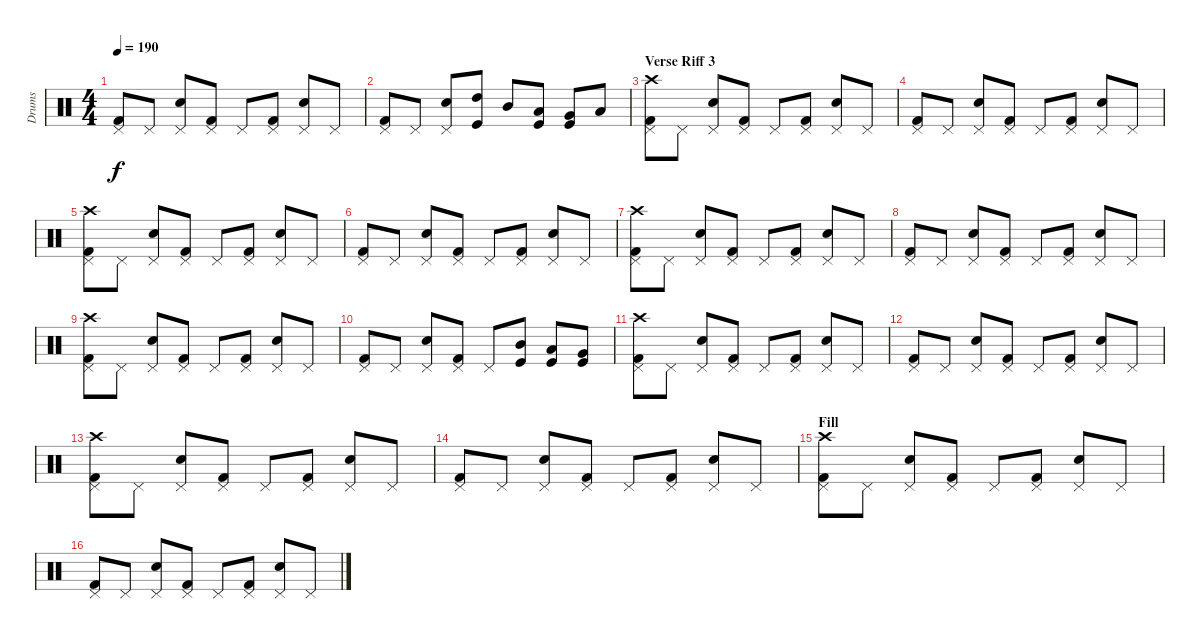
\track ("Drums" "Drums") {instrument percussion}
\staff {score}
\articulation defaults
\ts (4 4)
\tempo 190
\clef neutral
\ks c
("Kick (hit) 2" "Pedal Hi-Hat (hit)").8{dy f} "Pedal Hi-Hat (hit)".8 ("Snare (hit) 2" "Pedal Hi-Hat (hit)").8 ("Kick (hit) 2" "Pedal Hi-Hat (hit)").8 "Pedal Hi-Hat (hit)".8 ("Kick (hit) 2" "Pedal Hi-Hat (hit)").8 ("Snare (hit) 2" "Pedal Hi-Hat (hit)").8 "Pedal Hi-Hat (hit)".8 |
("Kick (hit) 2" "Pedal Hi-Hat (hit)").8 "Pedal Hi-Hat (hit)".8 ("Snare (hit) 2" "Pedal Hi-Hat (hit)").8 ("High Tom (hit)" "Kick (hit)").8 "Mid Tom (hit)".8 ("Low Tom (hit)" "Kick (hit)").8 ("Very Low Tom (hit)" "Kick (hit)").8 "Low Floor Tom (hit)".8 |
\section ("" "Verse Riff 3")
("Kick (hit) 2" "Pedal Hi-Hat (hit)" "Crash high (hit)").8 "Pedal Hi-Hat (hit)".8 ("Snare (hit) 2" "Pedal Hi-Hat (hit)").8 ("Kick (hit) 2" "Pedal Hi-Hat (hit)").8 "Pedal Hi-Hat (hit)".8 ("Kick (hit) 2" "Pedal Hi-Hat (hit)").8 ("Snare (hit) 2" "Pedal Hi-Hat (hit)").8 "Pedal Hi-Hat (hit)".8 |
("Kick (hit) 2" "Pedal Hi-Hat (hit)").8 "Pedal Hi-Hat (hit)".8 ("Snare (hit) 2" "Pedal Hi-Hat (hit)").8 ("Kick (hit) 2" "Pedal Hi-Hat (hit)").8 "Pedal Hi-Hat (hit)".8 ("Kick (hit) 2" "Pedal Hi-Hat (hit)").8 ("Snare (hit) 2" "Pedal Hi-Hat (hit)").8 "Pedal Hi-Hat (hit)".8 |
("Kick (hit) 2" "Pedal Hi-Hat (hit)" "Crash high (hit)").8 "Pedal Hi-Hat (hit)".8 ("Snare (hit) 2" "Pedal Hi-Hat (hit)").8 ("Kick (hit) 2" "Pedal Hi-Hat (hit)").8 "Pedal Hi-Hat (hit)".8 ("Kick (hit) 2" "Pedal Hi-Hat (hit)").8 ("Snare (hit) 2" "Pedal Hi-Hat (hit)").8 "Pedal Hi-Hat (hit)".8 |
("Kick (hit) 2" "Pedal Hi-Hat (hit)").8 "Pedal Hi-Hat (hit)".8 ("Snare (hit) 2" "Pedal Hi-Hat (hit)").8 ("Kick (hit) 2" "Pedal Hi-Hat (hit)").8 "Pedal Hi-Hat (hit)".8 ("Kick (hit) 2" "Pedal Hi-Hat (hit)").8 ("Snare (hit) 2" "Pedal Hi-Hat (hit)").8 "Pedal Hi-Hat (hit)".8 |
("Kick (hit) 2" "Pedal Hi-Hat (hit)" "Crash high (hit)").8 "Pedal Hi-Hat (hit)".8 ("Snare (hit) 2" "Pedal Hi-Hat (hit)").8 ("Kick (hit) 2" "Pedal Hi-Hat (hit)").8 "Pedal Hi-Hat (hit)".8 ("Kick (hit) 2" "Pedal Hi-Hat (hit)").8 ("Snare (hit) 2" "Pedal Hi-Hat (hit)").8 "Pedal Hi-Hat (hit)".8 |
("Kick (hit) 2" "Pedal Hi-Hat (hit)").8 "Pedal Hi-Hat (hit)".8 ("Snare (hit) 2" "Pedal Hi-Hat (hit)").8 ("Kick (hit) 2" "Pedal Hi-Hat (hit)").8 "Pedal Hi-Hat (hit)".8 ("Kick (hit) 2" "Pedal Hi-Hat (hit)").8 ("Snare (hit) 2" "Pedal Hi-Hat (hit)").8 "Pedal Hi-Hat (hit)".8 |
("Kick (hit) 2" "Pedal Hi-Hat (hit)" "Crash high (hit)").8 "Pedal Hi-Hat (hit)".8 ("Snare (hit) 2" "Pedal Hi-Hat (hit)").8 ("Kick (hit) 2" "Pedal Hi-Hat (hit)").8 "Pedal Hi-Hat (hit)".8 ("Kick (hit) 2" "Pedal Hi-Hat (hit)").8 ("Snare (hit) 2" "Pedal Hi-Hat (hit)").8 "Pedal Hi-Hat (hit)".8 |
("Kick (hit) 2" "Pedal Hi-Hat (hit)").8 "Pedal Hi-Hat (hit)".8 ("Snare (hit) 2" "Pedal Hi-Hat (hit)").8 ("Kick (hit) 2" "Pedal Hi-Hat (hit)").8 "Pedal Hi-Hat (hit)".8 ("Mid Tom (hit)" "Kick (hit)").8 ("Low Tom (hit)" "Kick (hit)").8 ("Very Low Tom (hit)" "Kick (hit)").8 |
("Kick (hit) 2" "Pedal Hi-Hat (hit)" "Crash high (hit)").8 "Pedal Hi-Hat (hit)".8 ("Snare (hit) 2" "Pedal Hi-Hat (hit)").8 ("Kick (hit) 2" "Pedal Hi-Hat (hit)").8 "Pedal Hi-Hat (hit)".8 ("Kick (hit) 2" "Pedal Hi-Hat (hit)").8 ("Snare (hit) 2" "Pedal Hi-Hat (hit)").8 "Pedal Hi-Hat (hit)".8 |
("Kick (hit) 2" "Pedal Hi-Hat (hit)").8 "Pedal Hi-Hat (hit)".8 ("Snare (hit) 2" "Pedal Hi-Hat (hit)").8 ("Kick (hit) 2" "Pedal Hi-Hat (hit)").8 "Pedal Hi-Hat (hit)".8 ("Kick (hit) 2" "Pedal Hi-Hat (hit)").8 ("Snare (hit) 2" "Pedal Hi-Hat (hit)").8 "Pedal Hi-Hat (hit)".8 |
("Kick (hit) 2" "Pedal Hi-Hat (hit)" "Crash high (hit)").8 "Pedal Hi-Hat (hit)".8 ("Snare (hit) 2" "Pedal Hi-Hat (hit)").8 ("Kick (hit) 2" "Pedal Hi-Hat (hit)").8 "Pedal Hi-Hat (hit)".8 ("Kick (hit) 2" "Pedal Hi-Hat (hit)").8 ("Snare (hit) 2" "Pedal Hi-Hat (hit)").8 "Pedal Hi-Hat (hit)".8 |
("Kick (hit) 2" "Pedal Hi-Hat (hit)").8 "Pedal Hi-Hat (hit)".8 ("Snare (hit) 2" "Pedal Hi-Hat (hit)").8 ("Kick (hit) 2" "Pedal Hi-Hat (hit)").8 "Pedal Hi-Hat (hit)".8 ("Kick (hit) 2" "Pedal Hi-Hat (hit)").8 ("Snare (hit) 2" "Pedal Hi-Hat (hit)").8 "Pedal Hi-Hat (hit)".8 |
\section ("" "Fill")
("Kick (hit) 2" "Pedal Hi-Hat (hit)" "Crash high (hit)").8 "Pedal Hi-Hat (hit)".8 ("Snare (hit) 2" "Pedal Hi-Hat (hit)").8 ("Kick (hit) 2" "Pedal Hi-Hat (hit)").8 "Pedal Hi-Hat (hit)".8 ("Kick (hit) 2" "Pedal Hi-Hat (hit)").8 ("Snare (hit) 2" "Pedal Hi-Hat (hit)").8 "Pedal Hi-Hat (hit)".8 |
("Kick (hit) 2" "Pedal Hi-Hat (hit)").8 "Pedal Hi-Hat (hit)".8 ("Snare (hit) 2" "Pedal Hi-Hat (hit)").8 ("Kick (hit) 2" "Pedal Hi-Hat (hit)").8 "Pedal Hi-Hat (hit)".8 ("Kick (hit) 2" "Pedal Hi-Hat (hit)").8 ("Snare (hit) 2" "Pedal Hi-Hat (hit)").8 "Pedal Hi-Hat (hit)".8
